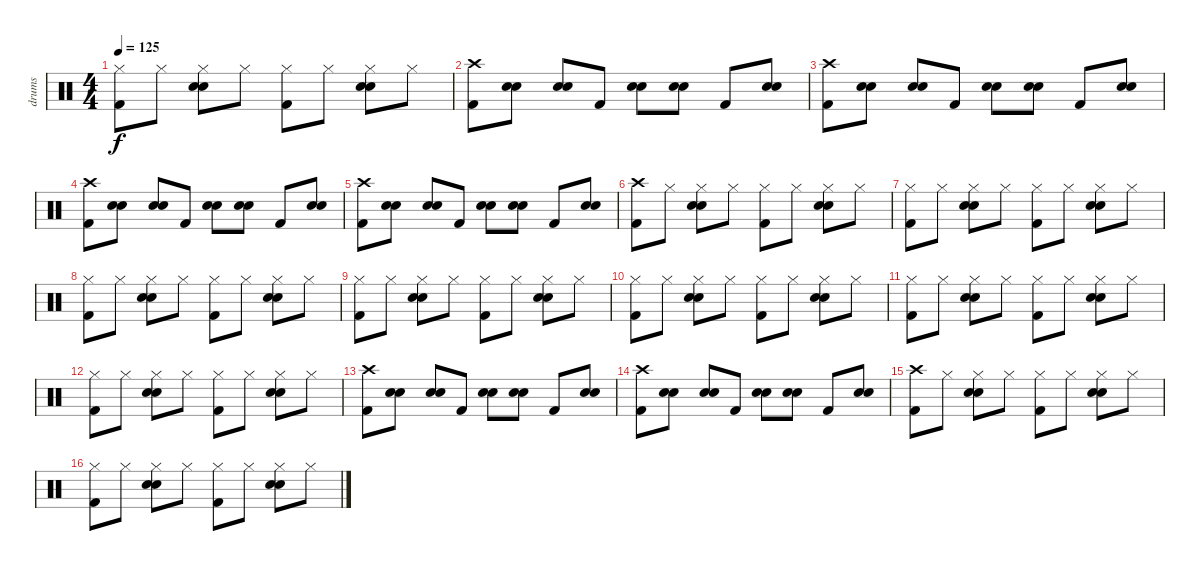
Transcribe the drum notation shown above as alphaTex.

\track ("drums" "drums") {instrument percussion}
\staff {score}
\articulation defaults
\ts (4 4)
\tempo 125
\clef neutral
\ks c
("Hi-Hat (closed)" "Kick (hit) 2").8{dy f} "Hi-Hat (closed)".8 ("Hi-Hat (closed)" "Snare (hit) 2" "Electric Snare (hit)").8 "Hi-Hat (closed)".8 ("Hi-Hat (closed)" "Kick (hit) 2").8 "Hi-Hat (closed)".8 ("Hi-Hat (closed)" "Snare (hit) 2" "Electric Snare (hit)").8 "Hi-Hat (closed)".8 |
("Crash high (hit)" "Kick (hit) 2").8 ("Snare (hit) 2" "Electric Snare (hit)").8 ("Snare (hit) 2" "Electric Snare (hit)").8 "Kick (hit) 2".8 ("Electric Snare (hit)" "Snare (hit) 2").8 ("Electric Snare (hit)" "Snare (hit) 2").8 "Kick (hit) 2".8 ("Electric Snare (hit)" "Snare (hit) 2").8 |
("Crash high (hit)" "Kick (hit) 2").8 ("Snare (hit) 2" "Electric Snare (hit)").8 ("Snare (hit) 2" "Electric Snare (hit)").8 "Kick (hit) 2".8 ("Electric Snare (hit)" "Snare (hit) 2").8 ("Electric Snare (hit)" "Snare (hit) 2").8 "Kick (hit) 2".8 ("Electric Snare (hit)" "Snare (hit) 2").8 |
("Crash high (hit)" "Kick (hit) 2").8 ("Snare (hit) 2" "Electric Snare (hit)").8 ("Snare (hit) 2" "Electric Snare (hit)").8 "Kick (hit) 2".8 ("Electric Snare (hit)" "Snare (hit) 2").8 ("Electric Snare (hit)" "Snare (hit) 2").8 "Kick (hit) 2".8 ("Electric Snare (hit)" "Snare (hit) 2").8 |
("Crash high (hit)" "Kick (hit) 2").8 ("Snare (hit) 2" "Electric Snare (hit)").8 ("Snare (hit) 2" "Electric Snare (hit)").8 "Kick (hit) 2".8 ("Electric Snare (hit)" "Snare (hit) 2").8 ("Electric Snare (hit)" "Snare (hit) 2").8 "Kick (hit) 2".8 ("Electric Snare (hit)" "Snare (hit) 2").8 |
("Crash high (hit)" "Kick (hit) 2").8 "Hi-Hat (closed)".8 ("Hi-Hat (closed)" "Snare (hit) 2" "Electric Snare (hit)").8 "Hi-Hat (closed)".8 ("Hi-Hat (closed)" "Kick (hit) 2").8 "Hi-Hat (closed)".8 ("Hi-Hat (closed)" "Snare (hit) 2" "Electric Snare (hit)").8 "Hi-Hat (closed)".8 |
("Hi-Hat (closed)" "Kick (hit) 2").8 "Hi-Hat (closed)".8 ("Hi-Hat (closed)" "Snare (hit) 2" "Electric Snare (hit)").8 "Hi-Hat (closed)".8 ("Hi-Hat (closed)" "Kick (hit) 2").8 "Hi-Hat (closed)".8 ("Hi-Hat (closed)" "Snare (hit) 2" "Electric Snare (hit)").8 "Hi-Hat (closed)".8 |
("Hi-Hat (closed)" "Kick (hit) 2").8 "Hi-Hat (closed)".8 ("Hi-Hat (closed)" "Snare (hit) 2" "Electric Snare (hit)").8 "Hi-Hat (closed)".8 ("Hi-Hat (closed)" "Kick (hit) 2").8 "Hi-Hat (closed)".8 ("Hi-Hat (closed)" "Snare (hit) 2" "Electric Snare (hit)").8 "Hi-Hat (closed)".8 |
("Hi-Hat (closed)" "Kick (hit) 2").8 "Hi-Hat (closed)".8 ("Hi-Hat (closed)" "Snare (hit) 2" "Electric Snare (hit)").8 "Hi-Hat (closed)".8 ("Hi-Hat (closed)" "Kick (hit) 2").8 "Hi-Hat (closed)".8 ("Hi-Hat (closed)" "Snare (hit) 2" "Electric Snare (hit)").8 "Hi-Hat (closed)".8 |
("Hi-Hat (closed)" "Kick (hit) 2").8 "Hi-Hat (closed)".8 ("Hi-Hat (closed)" "Snare (hit) 2" "Electric Snare (hit)").8 "Hi-Hat (closed)".8 ("Hi-Hat (closed)" "Kick (hit) 2").8 "Hi-Hat (closed)".8 ("Hi-Hat (closed)" "Snare (hit) 2" "Electric Snare (hit)").8 "Hi-Hat (closed)".8 |
("Hi-Hat (closed)" "Kick (hit) 2").8 "Hi-Hat (closed)".8 ("Hi-Hat (closed)" "Snare (hit) 2" "Electric Snare (hit)").8 "Hi-Hat (closed)".8 ("Hi-Hat (closed)" "Kick (hit) 2").8 "Hi-Hat (closed)".8 ("Hi-Hat (closed)" "Snare (hit) 2" "Electric Snare (hit)").8 "Hi-Hat (closed)".8 |
("Hi-Hat (closed)" "Kick (hit) 2").8 "Hi-Hat (closed)".8 ("Hi-Hat (closed)" "Snare (hit) 2" "Electric Snare (hit)").8 "Hi-Hat (closed)".8 ("Hi-Hat (closed)" "Kick (hit) 2").8 "Hi-Hat (closed)".8 ("Hi-Hat (closed)" "Snare (hit) 2" "Electric Snare (hit)").8 "Hi-Hat (closed)".8 |
("Crash high (hit)" "Kick (hit) 2").8 ("Snare (hit) 2" "Electric Snare (hit)").8 ("Snare (hit) 2" "Electric Snare (hit)").8 "Kick (hit) 2".8 ("Electric Snare (hit)" "Snare (hit) 2").8 ("Electric Snare (hit)" "Snare (hit) 2").8 "Kick (hit) 2".8 ("Electric Snare (hit)" "Snare (hit) 2").8 |
("Crash high (hit)" "Kick (hit) 2").8 ("Snare (hit) 2" "Electric Snare (hit)").8 ("Snare (hit) 2" "Electric Snare (hit)").8 "Kick (hit) 2".8 ("Electric Snare (hit)" "Snare (hit) 2").8 ("Electric Snare (hit)" "Snare (hit) 2").8 "Kick (hit) 2".8 ("Electric Snare (hit)" "Snare (hit) 2").8 |
("Crash high (hit)" "Kick (hit) 2").8 "Hi-Hat (closed)".8 ("Hi-Hat (closed)" "Snare (hit) 2" "Electric Snare (hit)").8 "Hi-Hat (closed)".8 ("Hi-Hat (closed)" "Kick (hit) 2").8 "Hi-Hat (closed)".8 ("Hi-Hat (closed)" "Snare (hit) 2" "Electric Snare (hit)").8 "Hi-Hat (closed)".8 |
("Hi-Hat (closed)" "Kick (hit) 2").8 "Hi-Hat (closed)".8 ("Hi-Hat (closed)" "Snare (hit) 2" "Electric Snare (hit)").8 "Hi-Hat (closed)".8 ("Hi-Hat (closed)" "Kick (hit) 2").8 "Hi-Hat (closed)".8 ("Hi-Hat (closed)" "Snare (hit) 2" "Electric Snare (hit)").8 "Hi-Hat (closed)".8
